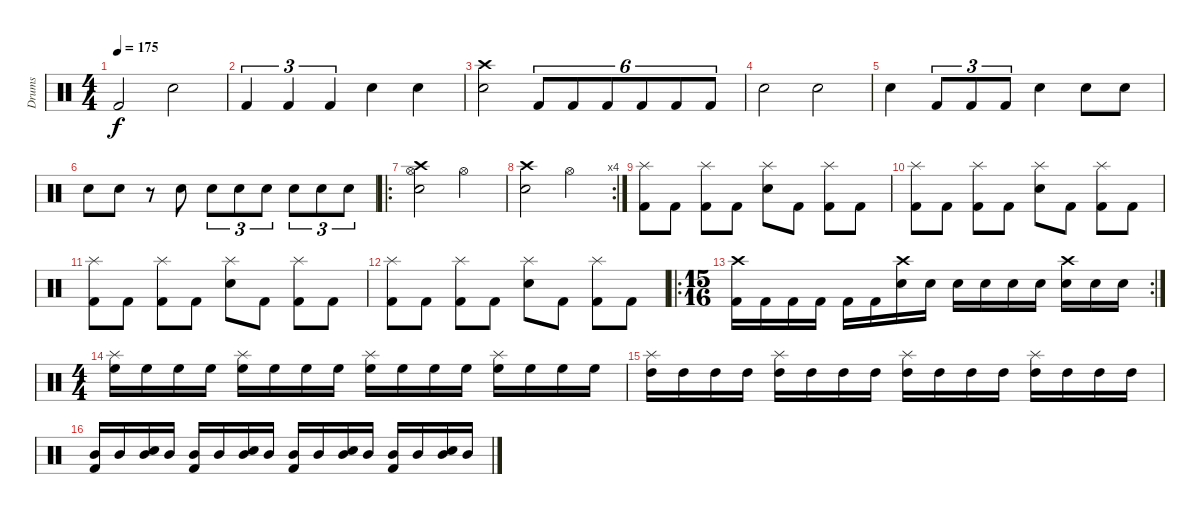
\track ("Drums" "Drums") {instrument percussion}
\staff {score}
\articulation defaults
\ts (4 4)
\tempo 175
\clef neutral
\ks c "Kick (hit) 2".2{dy f} "Electric Snare (hit)".2
|
"Kick (hit) 2".4{tu (3 2)} "Kick (hit) 2".4{tu (3 2)} "Kick (hit) 2".4{tu (3 2)} "Electric Snare (hit)".4 "Electric Snare (hit)".4 |
("Electric Snare (hit)" "Crash high (hit)").2 "Kick (hit) 2".8{tu (6 4)} "Kick (hit) 2".8{tu (6 4)} "Kick (hit) 2".8{tu (6 4)} "Kick (hit) 2".8{tu (6 4)} "Kick (hit) 2".8{tu (6 4)} "Kick (hit) 2".8{tu (6 4)} |
"Electric Snare (hit)".2 "Electric Snare (hit)".2 |
"Electric Snare (hit)".4 "Kick (hit) 2".8{tu (3 2)} "Kick (hit) 2".8{tu (3 2)} "Kick (hit) 2".8{tu (3 2)} "Electric Snare (hit)".4 "Electric Snare (hit)".8 "Electric Snare (hit)".8 |
"Electric Snare (hit)".8 "Electric Snare (hit)".8 r.8 "Electric Snare (hit)".8 "Electric Snare (hit)".8{tu (3 2)} "Electric Snare (hit)".8{tu (3 2)} "Electric Snare (hit)".8{tu (3 2)} "Electric Snare (hit)".8{tu (3 2)} "Electric Snare (hit)".8{tu (3 2)} "Electric Snare (hit)".8{tu (3 2)} |
\ro
("Crash high (hit)" "Hi-Hat (open)" "Electric Snare (hit)").2 "Hi-Hat (open)".2 |
\rc 4
("Crash high (hit)" "Electric Snare (hit)").2 "Hi-Hat (open)".2 |
("Splash (hit)" "Kick (hit) 2").8 "Kick (hit) 2".8 ("Splash (hit)" "Kick (hit) 2").8 "Kick (hit) 2".8 ("Splash (hit)" "Electric Snare (hit)").8 "Kick (hit) 2".8 ("Splash (hit)" "Kick (hit) 2").8 "Kick (hit) 2".8 |
("Splash (hit)" "Kick (hit) 2").8 "Kick (hit) 2".8 ("Splash (hit)" "Kick (hit) 2").8 "Kick (hit) 2".8 ("Splash (hit)" "Electric Snare (hit)").8 "Kick (hit) 2".8 ("Splash (hit)" "Kick (hit) 2").8 "Kick (hit) 2".8 |
("Splash (hit)" "Kick (hit) 2").8 "Kick (hit) 2".8 ("Splash (hit)" "Kick (hit) 2").8 "Kick (hit) 2".8 ("Splash (hit)" "Electric Snare (hit)").8 "Kick (hit) 2".8 ("Splash (hit)" "Kick (hit) 2").8 "Kick (hit) 2".8 |
("Splash (hit)" "Kick (hit) 2").8 "Kick (hit) 2".8 ("Splash (hit)" "Kick (hit) 2").8 "Kick (hit) 2".8 ("Splash (hit)" "Electric Snare (hit)").8 "Kick (hit) 2".8 ("Splash (hit)" "Kick (hit) 2").8 "Kick (hit) 2".8 |
\ro
\rc 2
\ts (15 16)
("Crash high (hit)" "Kick (hit) 2").16 "Kick (hit) 2".16 "Kick (hit) 2".16 "Kick (hit) 2".16 "Kick (hit) 2".16 "Kick (hit) 2".16 ("Crash high (hit)" "Electric Snare (hit)").16 "Electric Snare (hit)".16 "Electric Snare (hit)".16 "Electric Snare (hit)".16 "Electric Snare (hit)".16 "Electric Snare (hit)".16 ("Crash high (hit)" "Electric Snare (hit)").16 "Electric Snare (hit)".16 "Electric Snare (hit)".16 |
\ts (4 4)
("Splash (hit)" "High Floor Tom (hit)").16 "High Floor Tom (hit)".16 "High Floor Tom (hit)".16 "High Floor Tom (hit)".16 ("Splash (hit)" "High Floor Tom (hit)").16 "High Floor Tom (hit)".16 "High Floor Tom (hit)".16 "High Floor Tom (hit)".16 ("Splash (hit)" "High Floor Tom (hit)").16 "High Floor Tom (hit)".16 "High Floor Tom (hit)".16 "High Floor Tom (hit)".16 ("Splash (hit)" "High Floor Tom (hit)").16 "High Floor Tom (hit)".16 "High Floor Tom (hit)".16 "High Floor Tom (hit)".16 |
("Splash (hit)" "High Tom (hit)").16 "High Tom (hit)".16 "High Tom (hit)".16 "High Tom (hit)".16 ("Splash (hit)" "High Tom (hit)").16 "High Tom (hit)".16 "High Tom (hit)".16 "High Tom (hit)".16 ("Splash (hit)" "High Tom (hit)").16 "High Tom (hit)".16 "High Tom (hit)".16 "High Tom (hit)".16 ("Splash (hit)" "High Tom (hit)").16 "High Tom (hit)".16 "High Tom (hit)".16 "High Tom (hit)".16 |
("Kick (hit) 2" "Mid Tom (hit)").16 "Mid Tom (hit)".16 ("Electric Snare (hit)" "Mid Tom (hit)").16 "Mid Tom (hit)".16 ("Kick (hit) 2" "Mid Tom (hit)").16 "Mid Tom (hit)".16 ("Electric Snare (hit)" "Mid Tom (hit)").16 "Mid Tom (hit)".16 ("Kick (hit) 2" "Mid Tom (hit)").16 "Mid Tom (hit)".16 ("Electric Snare (hit)" "Mid Tom (hit)").16 "Mid Tom (hit)".16 ("Kick (hit) 2" "Mid Tom (hit)").16 "Mid Tom (hit)".16 ("Electric Snare (hit)" "Mid Tom (hit)").16 "Mid Tom (hit)".16
